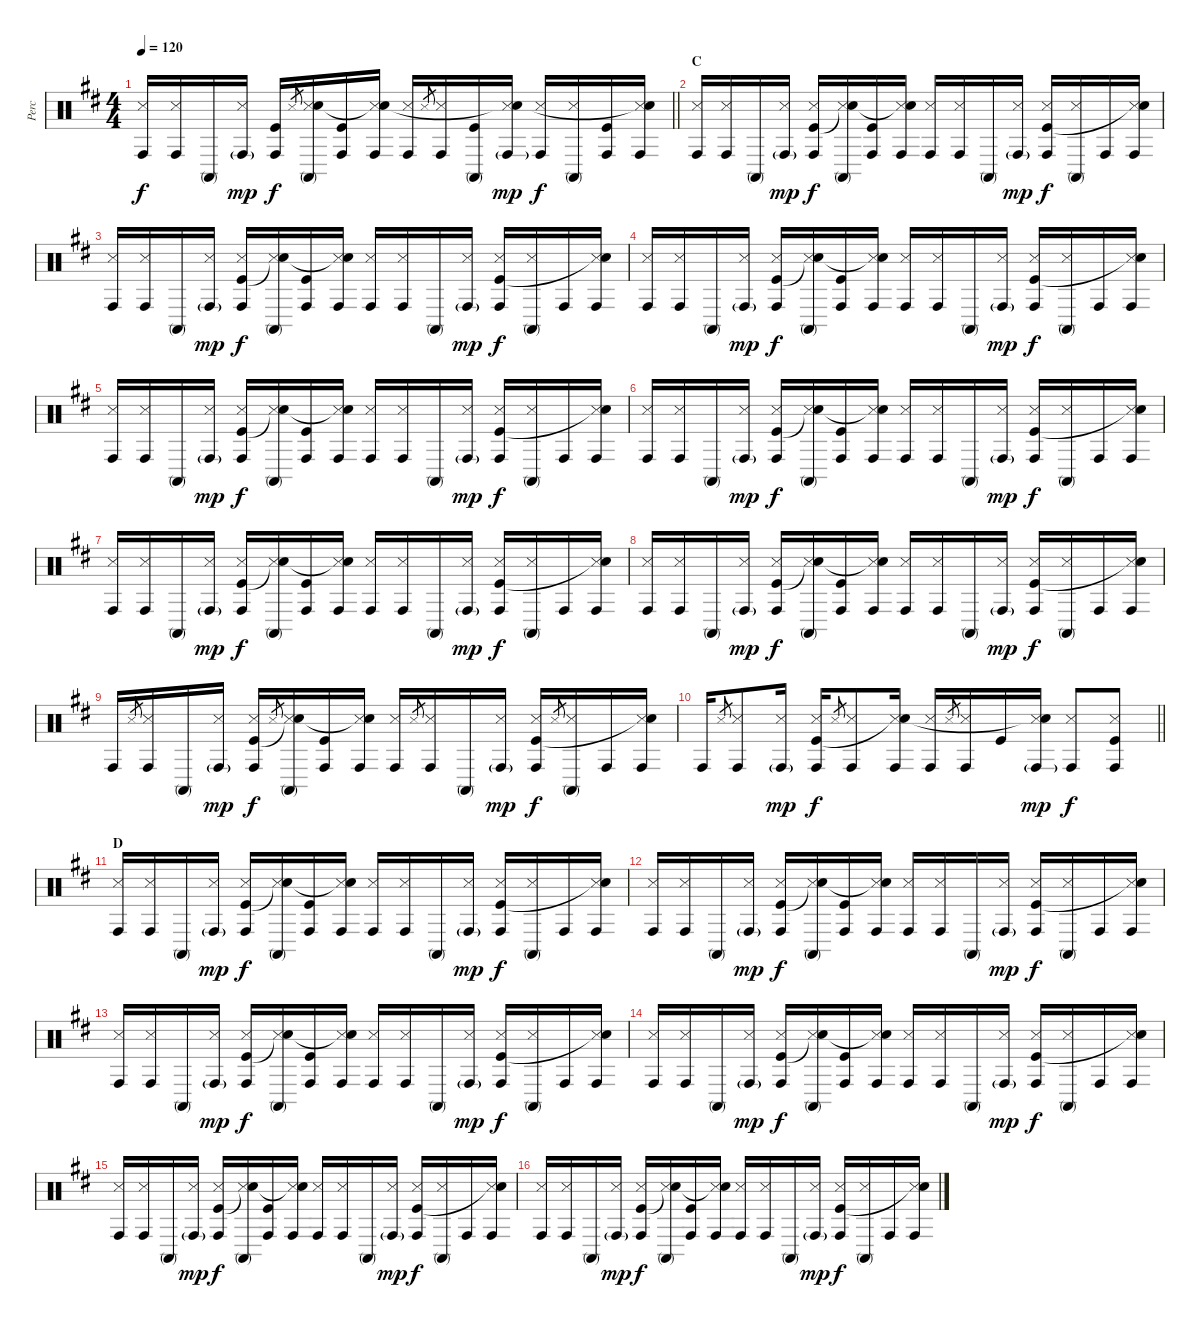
\track ("Perc" "Perc") {instrument percussion}
\staff {score}
\articulation defaults
\ts (4 4)
\tempo 120
\clef neutral
\barLineRight lightlight
\ks d
("Conga high (hit)" "Snare (side stick) 3").16{dy f} ("Conga high (hit)" "Snare (side stick) 3").16 "Conga high (mute)".16 ("Conga high (hit)"{g} "Snare (side stick) 3").16{dy mp} ("Conga high (hit)" "Kick (hit)").16{dy f} "Snare (side stick) 3".8{gr} ("Conga high (mute)" "Snare (side stick) 3" "Snare (hit)"{t}).16 ("Conga high (hit)" "Kick (hit)").16 ("Conga high (hit)" "Snare (side stick) 3" "Snare (hit)"{t}).16 ("Conga high (hit)" "Snare (side stick) 3").16 "Snare (side stick) 3".8{gr} ("Conga high (hit)" "Snare (side stick) 3").16 ("Conga high (mute)" "Kick (hit)").16 ("Conga high (hit)"{g} "Snare (side stick) 3" "Snare (hit)"{t}).16{dy mp} ("Conga high (hit)" "Snare (side stick) 3").16{dy f} ("Conga high (mute)" "Snare (side stick) 3").16 ("Conga high (hit)" "Kick (hit)").16 ("Conga high (hit)" "Snare (side stick) 3" "Snare (hit)"{t}).16 |
\section ("" "C")
("Conga high (hit)" "Snare (side stick) 3").16 ("Conga high (hit)" "Snare (side stick) 3").16 "Conga high (mute)".16 ("Conga high (hit)"{g} "Snare (side stick) 3").16{dy mp} ("Conga high (hit)" "Snare (side stick) 3" "Kick (hit)").16{dy f} ("Conga high (mute)" "Snare (side stick) 3" "Snare (hit)"{t}).16 ("Conga high (hit)" "Kick (hit)").16 ("Conga high (hit)" "Snare (side stick) 3" "Snare (hit)"{t}).16 ("Conga high (hit)" "Snare (side stick) 3").16 ("Conga high (hit)" "Snare (side stick) 3").16 "Conga high (mute)".16 ("Conga high (hit)"{g} "Snare (side stick) 3").16{dy mp} ("Conga high (hit)" "Snare (side stick) 3" "Kick (hit)").16{dy f} ("Conga high (mute)" "Snare (side stick) 3").16 "Conga high (hit)".16 ("Conga high (hit)" "Snare (side stick) 3" "Snare (hit)"{t}).16 |
("Conga high (hit)" "Snare (side stick) 3").16 ("Conga high (hit)" "Snare (side stick) 3").16 "Conga high (mute)".16 ("Conga high (hit)"{g} "Snare (side stick) 3").16{dy mp} ("Conga high (hit)" "Snare (side stick) 3" "Kick (hit)").16{dy f} ("Conga high (mute)" "Snare (side stick) 3" "Snare (hit)"{t}).16 ("Conga high (hit)" "Kick (hit)").16 ("Conga high (hit)" "Snare (side stick) 3" "Snare (hit)"{t}).16 ("Conga high (hit)" "Snare (side stick) 3").16 ("Conga high (hit)" "Snare (side stick) 3").16 "Conga high (mute)".16 ("Conga high (hit)"{g} "Snare (side stick) 3").16{dy mp} ("Conga high (hit)" "Snare (side stick) 3" "Kick (hit)").16{dy f} ("Conga high (mute)" "Snare (side stick) 3").16 "Conga high (hit)".16 ("Conga high (hit)" "Snare (side stick) 3" "Snare (hit)"{t}).16 |
("Conga high (hit)" "Snare (side stick) 3").16 ("Conga high (hit)" "Snare (side stick) 3").16 "Conga high (mute)".16 ("Conga high (hit)"{g} "Snare (side stick) 3").16{dy mp} ("Conga high (hit)" "Snare (side stick) 3" "Kick (hit)").16{dy f} ("Conga high (mute)" "Snare (side stick) 3" "Snare (hit)"{t}).16 ("Conga high (hit)" "Kick (hit)").16 ("Conga high (hit)" "Snare (side stick) 3" "Snare (hit)"{t}).16 ("Conga high (hit)" "Snare (side stick) 3").16 ("Conga high (hit)" "Snare (side stick) 3").16 "Conga high (mute)".16 ("Conga high (hit)"{g} "Snare (side stick) 3").16{dy mp} ("Conga high (hit)" "Snare (side stick) 3" "Kick (hit)").16{dy f} ("Conga high (mute)" "Snare (side stick) 3").16 "Conga high (hit)".16 ("Conga high (hit)" "Snare (side stick) 3" "Snare (hit)"{t}).16 |
("Conga high (hit)" "Snare (side stick) 3").16 ("Conga high (hit)" "Snare (side stick) 3").16 "Conga high (mute)".16 ("Conga high (hit)"{g} "Snare (side stick) 3").16{dy mp} ("Conga high (hit)" "Snare (side stick) 3" "Kick (hit)").16{dy f} ("Conga high (mute)" "Snare (side stick) 3" "Snare (hit)"{t}).16 ("Conga high (hit)" "Kick (hit)").16 ("Conga high (hit)" "Snare (side stick) 3" "Snare (hit)"{t}).16 ("Conga high (hit)" "Snare (side stick) 3").16 ("Conga high (hit)" "Snare (side stick) 3").16 "Conga high (mute)".16 ("Conga high (hit)"{g} "Snare (side stick) 3").16{dy mp} ("Conga high (hit)" "Snare (side stick) 3" "Kick (hit)").16{dy f} ("Conga high (mute)" "Snare (side stick) 3").16 "Conga high (hit)".16 ("Conga high (hit)" "Snare (side stick) 3" "Snare (hit)"{t}).16 |
("Conga high (hit)" "Snare (side stick) 3").16 ("Conga high (hit)" "Snare (side stick) 3").16 "Conga high (mute)".16 ("Conga high (hit)"{g} "Snare (side stick) 3").16{dy mp} ("Conga high (hit)" "Snare (side stick) 3" "Kick (hit)").16{dy f} ("Conga high (mute)" "Snare (side stick) 3" "Snare (hit)"{t}).16 ("Conga high (hit)" "Kick (hit)").16 ("Conga high (hit)" "Snare (side stick) 3" "Snare (hit)"{t}).16 ("Conga high (hit)" "Snare (side stick) 3").16 ("Conga high (hit)" "Snare (side stick) 3").16 "Conga high (mute)".16 ("Conga high (hit)"{g} "Snare (side stick) 3").16{dy mp} ("Conga high (hit)" "Snare (side stick) 3" "Kick (hit)").16{dy f} ("Conga high (mute)" "Snare (side stick) 3").16 "Conga high (hit)".16 ("Conga high (hit)" "Snare (side stick) 3" "Snare (hit)"{t}).16 |
("Conga high (hit)" "Snare (side stick) 3").16 ("Conga high (hit)" "Snare (side stick) 3").16 "Conga high (mute)".16 ("Conga high (hit)"{g} "Snare (side stick) 3").16{dy mp} ("Conga high (hit)" "Snare (side stick) 3" "Kick (hit)").16{dy f} ("Conga high (mute)" "Snare (side stick) 3" "Snare (hit)"{t}).16 ("Conga high (hit)" "Kick (hit)").16 ("Conga high (hit)" "Snare (side stick) 3" "Snare (hit)"{t}).16 ("Conga high (hit)" "Snare (side stick) 3").16 ("Conga high (hit)" "Snare (side stick) 3").16 "Conga high (mute)".16 ("Conga high (hit)"{g} "Snare (side stick) 3").16{dy mp} ("Conga high (hit)" "Snare (side stick) 3" "Kick (hit)").16{dy f} ("Conga high (mute)" "Snare (side stick) 3").16 "Conga high (hit)".16 ("Conga high (hit)" "Snare (side stick) 3" "Snare (hit)"{t}).16 |
("Conga high (hit)" "Snare (side stick) 3").16 ("Conga high (hit)" "Snare (side stick) 3").16 "Conga high (mute)".16 ("Conga high (hit)"{g} "Snare (side stick) 3").16{dy mp} ("Conga high (hit)" "Snare (side stick) 3" "Kick (hit)").16{dy f} ("Conga high (mute)" "Snare (side stick) 3" "Snare (hit)"{t}).16 ("Conga high (hit)" "Kick (hit)").16 ("Conga high (hit)" "Snare (side stick) 3" "Snare (hit)"{t}).16 ("Conga high (hit)" "Snare (side stick) 3").16 ("Conga high (hit)" "Snare (side stick) 3").16 "Conga high (mute)".16 ("Conga high (hit)"{g} "Snare (side stick) 3").16{dy mp} ("Conga high (hit)" "Snare (side stick) 3" "Kick (hit)").16{dy f} ("Conga high (mute)" "Snare (side stick) 3").16 "Conga high (hit)".16 ("Conga high (hit)" "Snare (side stick) 3" "Snare (hit)"{t}).16 |
"Conga high (hit)".16 "Snare (side stick) 3".8{gr} ("Conga high (hit)" "Snare (side stick) 3").16 "Conga high (mute)".16 ("Conga high (hit)"{g} "Snare (side stick) 3").16{dy mp} ("Conga high (hit)" "Snare (side stick) 3" "Kick (hit)").16{dy f} "Snare (side stick) 3".8{gr} ("Conga high (mute)" "Snare (side stick) 3" "Snare (hit)"{t}).16 ("Conga high (hit)" "Kick (hit)").16 ("Conga high (hit)" "Snare (side stick) 3" "Snare (hit)"{t}).16 ("Conga high (hit)" "Snare (side stick) 3").16 "Snare (side stick) 3".8{gr} ("Conga high (hit)" "Snare (side stick) 3").16 "Conga high (mute)".16 ("Conga high (hit)"{g} "Snare (side stick) 3").16{dy mp} ("Conga high (hit)" "Snare (side stick) 3" "Kick (hit)").16{dy f} "Snare (side stick) 3".8{gr} ("Conga high (mute)" "Snare (side stick) 3").16 "Conga high (hit)".16 ("Conga high (hit)" "Snare (side stick) 3" "Snare (hit)"{t}).16 |
\barLineRight lightlight "Conga high (hit)".16 "Snare (side stick) 3".8{gr}
("Conga high (hit)" "Snare (side stick) 3").8 ("Conga high (hit)"{g} "Snare (side stick) 3").16{dy mp} ("Conga high (hit)" "Snare (side stick) 3" "Kick (hit)").16{dy f} "Snare (side stick) 3".8{gr} ("Conga high (hit)" "Snare (side stick) 3").8 ("Conga high (hit)" "Snare (side stick) 3" "Snare (hit)"{t}).16 ("Conga high (hit)" "Snare (side stick) 3").16 "Snare (side stick) 3".8{gr} ("Conga high (hit)" "Snare (side stick) 3").16 "Kick (hit)".16 ("Conga high (hit)"{g} "Snare (side stick) 3" "Snare (hit)"{t}).16{dy mp} ("Conga high (hit)" "Snare (side stick) 3").8{dy f} ("Conga high (hit)" "Snare (side stick) 3" "Kick (hit)").8 |
\section ("" "D")
("Conga high (hit)" "Snare (side stick) 3").16 ("Conga high (hit)" "Snare (side stick) 3").16 "Conga high (mute)".16 ("Conga high (hit)"{g} "Snare (side stick) 3").16{dy mp} ("Conga high (hit)" "Snare (side stick) 3" "Kick (hit)").16{dy f} ("Conga high (mute)" "Snare (side stick) 3" "Snare (hit)"{t}).16 ("Conga high (hit)" "Kick (hit)").16 ("Conga high (hit)" "Snare (side stick) 3" "Snare (hit)"{t}).16 ("Conga high (hit)" "Snare (side stick) 3").16 ("Conga high (hit)" "Snare (side stick) 3").16 "Conga high (mute)".16 ("Conga high (hit)"{g} "Snare (side stick) 3").16{dy mp} ("Conga high (hit)" "Snare (side stick) 3" "Kick (hit)").16{dy f} ("Conga high (mute)" "Snare (side stick) 3").16 "Conga high (hit)".16 ("Conga high (hit)" "Snare (side stick) 3" "Snare (hit)"{t}).16 |
("Conga high (hit)" "Snare (side stick) 3").16 ("Conga high (hit)" "Snare (side stick) 3").16 "Conga high (mute)".16 ("Conga high (hit)"{g} "Snare (side stick) 3").16{dy mp} ("Conga high (hit)" "Snare (side stick) 3" "Kick (hit)").16{dy f} ("Conga high (mute)" "Snare (side stick) 3" "Snare (hit)"{t}).16 ("Conga high (hit)" "Kick (hit)").16 ("Conga high (hit)" "Snare (side stick) 3" "Snare (hit)"{t}).16 ("Conga high (hit)" "Snare (side stick) 3").16 ("Conga high (hit)" "Snare (side stick) 3").16 "Conga high (mute)".16 ("Conga high (hit)"{g} "Snare (side stick) 3").16{dy mp} ("Conga high (hit)" "Snare (side stick) 3" "Kick (hit)").16{dy f} ("Conga high (mute)" "Snare (side stick) 3").16 "Conga high (hit)".16 ("Conga high (hit)" "Snare (side stick) 3" "Snare (hit)"{t}).16 |
("Conga high (hit)" "Snare (side stick) 3").16 ("Conga high (hit)" "Snare (side stick) 3").16 "Conga high (mute)".16 ("Conga high (hit)"{g} "Snare (side stick) 3").16{dy mp} ("Conga high (hit)" "Snare (side stick) 3" "Kick (hit)").16{dy f} ("Conga high (mute)" "Snare (side stick) 3" "Snare (hit)"{t}).16 ("Conga high (hit)" "Kick (hit)").16 ("Conga high (hit)" "Snare (side stick) 3" "Snare (hit)"{t}).16 ("Conga high (hit)" "Snare (side stick) 3").16 ("Conga high (hit)" "Snare (side stick) 3").16 "Conga high (mute)".16 ("Conga high (hit)"{g} "Snare (side stick) 3").16{dy mp} ("Conga high (hit)" "Snare (side stick) 3" "Kick (hit)").16{dy f} ("Conga high (mute)" "Snare (side stick) 3").16 "Conga high (hit)".16 ("Conga high (hit)" "Snare (side stick) 3" "Snare (hit)"{t}).16 |
("Conga high (hit)" "Snare (side stick) 3").16 ("Conga high (hit)" "Snare (side stick) 3").16 "Conga high (mute)".16 ("Conga high (hit)"{g} "Snare (side stick) 3").16{dy mp} ("Conga high (hit)" "Snare (side stick) 3" "Kick (hit)").16{dy f} ("Conga high (mute)" "Snare (side stick) 3" "Snare (hit)"{t}).16 ("Conga high (hit)" "Kick (hit)").16 ("Conga high (hit)" "Snare (side stick) 3" "Snare (hit)"{t}).16 ("Conga high (hit)" "Snare (side stick) 3").16 ("Conga high (hit)" "Snare (side stick) 3").16 "Conga high (mute)".16 ("Conga high (hit)"{g} "Snare (side stick) 3").16{dy mp} ("Conga high (hit)" "Snare (side stick) 3" "Kick (hit)").16{dy f} ("Conga high (mute)" "Snare (side stick) 3").16 "Conga high (hit)".16 ("Conga high (hit)" "Snare (side stick) 3" "Snare (hit)"{t}).16 |
("Conga high (hit)" "Snare (side stick) 3").16 ("Conga high (hit)" "Snare (side stick) 3").16 "Conga high (mute)".16 ("Conga high (hit)"{g} "Snare (side stick) 3").16{dy mp} ("Conga high (hit)" "Snare (side stick) 3" "Kick (hit)").16{dy f} ("Conga high (mute)" "Snare (side stick) 3" "Snare (hit)"{t}).16 ("Conga high (hit)" "Kick (hit)").16 ("Conga high (hit)" "Snare (side stick) 3" "Snare (hit)"{t}).16 ("Conga high (hit)" "Snare (side stick) 3").16 ("Conga high (hit)" "Snare (side stick) 3").16 "Conga high (mute)".16 ("Conga high (hit)"{g} "Snare (side stick) 3").16{dy mp} ("Conga high (hit)" "Snare (side stick) 3" "Kick (hit)").16{dy f} ("Conga high (mute)" "Snare (side stick) 3").16 "Conga high (hit)".16 ("Conga high (hit)" "Snare (side stick) 3" "Snare (hit)"{t}).16 |
("Conga high (hit)" "Snare (side stick) 3").16 ("Conga high (hit)" "Snare (side stick) 3").16 "Conga high (mute)".16 ("Conga high (hit)"{g} "Snare (side stick) 3").16{dy mp} ("Conga high (hit)" "Snare (side stick) 3" "Kick (hit)").16{dy f} ("Conga high (mute)" "Snare (side stick) 3" "Snare (hit)"{t}).16 ("Conga high (hit)" "Kick (hit)").16 ("Conga high (hit)" "Snare (side stick) 3" "Snare (hit)"{t}).16 ("Conga high (hit)" "Snare (side stick) 3").16 ("Conga high (hit)" "Snare (side stick) 3").16 "Conga high (mute)".16 ("Conga high (hit)"{g} "Snare (side stick) 3").16{dy mp} ("Conga high (hit)" "Snare (side stick) 3" "Kick (hit)").16{dy f} ("Conga high (mute)" "Snare (side stick) 3").16 "Conga high (hit)".16 ("Conga high (hit)" "Snare (side stick) 3" "Snare (hit)"{t}).16
